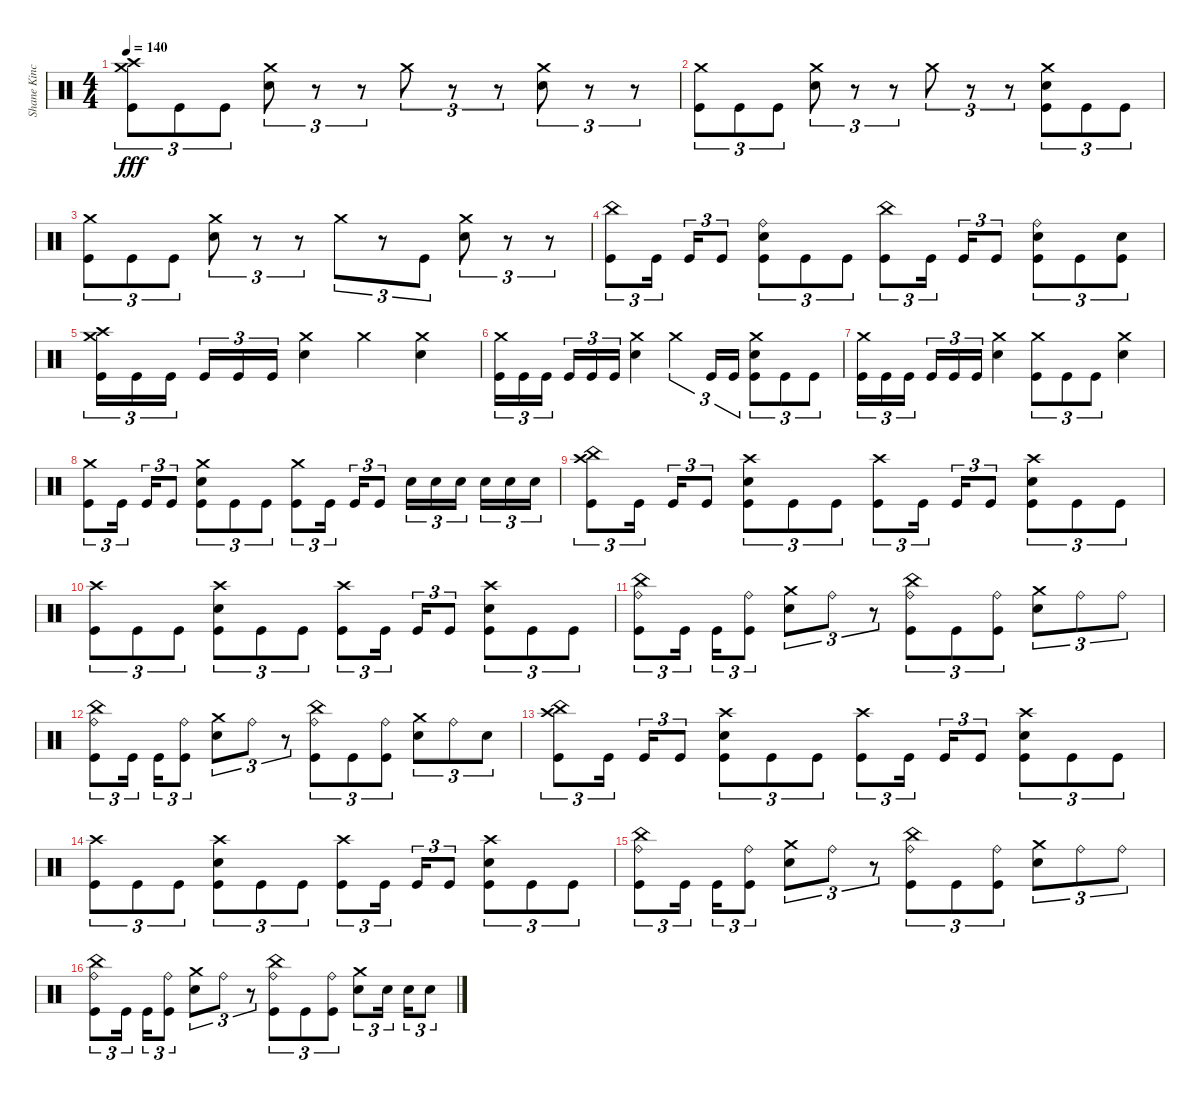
\track ("Shane Kincaid" "Shane Kinc") {instrument percussion}
\staff {score}
\articulation defaults
\ts (4 4)
\tempo 140
\clef neutral
\ks c
("Crash medium (hit)" "Crash high (hit)" "Kick (hit)").8{tu (3 2) dy fff} "Kick (hit)".8{tu (3 2)} "Kick (hit)".8{tu (3 2)} ("Crash medium (hit)" "Electric Snare (hit)").8{tu (3 2)} r.8{tu (3 2)} r.8{tu (3 2)} "Crash medium (hit)".8{tu (3 2)} r.8{tu (3 2)} r.8{tu (3 2)} ("Crash medium (hit)" "Electric Snare (hit)").8{tu (3 2)} r.8{tu (3 2)} r.8{tu (3 2)} |
("Crash medium (hit)" "Kick (hit)").8{tu (3 2)} "Kick (hit)".8{tu (3 2)} "Kick (hit)".8{tu (3 2)} ("Crash medium (hit)" "Electric Snare (hit)").8{tu (3 2)} r.8{tu (3 2)} r.8{tu (3 2)} "Crash medium (hit)".8{tu (3 2)} r.8{tu (3 2)} r.8{tu (3 2)} ("Crash medium (hit)" "Electric Snare (hit)" "Kick (hit)").8{tu (3 2)} "Kick (hit)".8{tu (3 2)} "Kick (hit)".8{tu (3 2)} |
("Crash medium (hit)" "Kick (hit)").8{tu (3 2)} "Kick (hit)".8{tu (3 2)} "Kick (hit)".8{tu (3 2)} ("Crash medium (hit)" "Electric Snare (hit)").8{tu (3 2)} r.8{tu (3 2)} r.8{tu (3 2)} "Crash medium (hit)".8{tu (3 2)} r.8{tu (3 2)} "Kick (hit)".8{tu (3 2)} ("Crash medium (hit)" "Electric Snare (hit)").8{tu (3 2)} r.8{tu (3 2)} r.8{tu (3 2)} |
("China (hit)" "Kick (hit)").8{tu (3 2)} "Kick (hit)".16{tu (3 2) beam splitsecondary} "Kick (hit)".16{tu (3 2)} "Kick (hit)".8{tu (3 2)} ("Ride (bell)" "Electric Snare (hit)" "Kick (hit)").8{tu (3 2)} "Kick (hit)".8{tu (3 2)} "Kick (hit)".8{tu (3 2)} ("China (hit)" "Kick (hit)").8{tu (3 2)} "Kick (hit)".16{tu (3 2) beam splitsecondary} "Kick (hit)".16{tu (3 2)} "Kick (hit)".8{tu (3 2)} ("Ride (bell)" "Electric Snare (hit)" "Kick (hit)").8{tu (3 2)} "Kick (hit)".8{tu (3 2)} ("Electric Snare (hit)" "Kick (hit)").8{tu (3 2)} |
("Crash medium (hit)" "Crash high (hit)" "Kick (hit)").16{tu (3 2)} "Kick (hit)".16{tu (3 2)} "Kick (hit)".16{tu (3 2) beam splitsecondary} "Kick (hit)".16{tu (3 2)} "Kick (hit)".16{tu (3 2)} "Kick (hit)".16{tu (3 2)} ("Crash medium (hit)" "Electric Snare (hit)").4 "Crash medium (hit)".4 ("Crash medium (hit)" "Electric Snare (hit)").4 |
("Crash medium (hit)" "Kick (hit)").16{tu (3 2)} "Kick (hit)".16{tu (3 2)} "Kick (hit)".16{tu (3 2) beam splitsecondary} "Kick (hit)".16{tu (3 2)} "Kick (hit)".16{tu (3 2)} "Kick (hit)".16{tu (3 2)} ("Crash medium (hit)" "Electric Snare (hit)").4 "Crash medium (hit)".4{tu (3 2)} "Kick (hit)".16{tu (3 2)} "Kick (hit)".16{tu (3 2)} ("Crash medium (hit)" "Electric Snare (hit)" "Kick (hit)").8{tu (3 2)} "Kick (hit)".8{tu (3 2)} "Kick (hit)".8{tu (3 2)} |
("Crash medium (hit)" "Kick (hit)").16{tu (3 2)} "Kick (hit)".16{tu (3 2)} "Kick (hit)".16{tu (3 2) beam splitsecondary} "Kick (hit)".16{tu (3 2)} "Kick (hit)".16{tu (3 2)} "Kick (hit)".16{tu (3 2)} ("Crash medium (hit)" "Electric Snare (hit)").4 ("Crash medium (hit)" "Kick (hit)").8{tu (3 2)} "Kick (hit)".8{tu (3 2)} "Kick (hit)".8{tu (3 2)} ("Crash medium (hit)" "Electric Snare (hit)").4 |
("Crash medium (hit)" "Kick (hit)").8{tu (3 2)} "Kick (hit)".16{tu (3 2) beam splitsecondary} "Kick (hit)".16{tu (3 2)} "Kick (hit)".8{tu (3 2)} ("Crash medium (hit)" "Electric Snare (hit)" "Kick (hit)").8{tu (3 2)} "Kick (hit)".8{tu (3 2)} "Kick (hit)".8{tu (3 2)} ("Crash medium (hit)" "Kick (hit)").8{tu (3 2)} "Kick (hit)".16{tu (3 2) beam splitsecondary} "Kick (hit)".16{tu (3 2)} "Kick (hit)".8{tu (3 2)} "Electric Snare (hit)".16{tu (3 2)} "Electric Snare (hit)".16{tu (3 2)} "Electric Snare (hit)".16{tu (3 2) beam splitsecondary} "Electric Snare (hit)".16{tu (3 2)} "Electric Snare (hit)".16{tu (3 2)} "Electric Snare (hit)".16{tu (3 2)} |
("Crash high (hit)" "China (hit)" "Kick (hit)").8{tu (3 2)} "Kick (hit)".16{tu (3 2) beam splitsecondary} "Kick (hit)".16{tu (3 2)} "Kick (hit)".8{tu (3 2)} ("Crash high (hit)" "Electric Snare (hit)" "Kick (hit)").8{tu (3 2)} "Kick (hit)".8{tu (3 2)} "Kick (hit)".8{tu (3 2)} ("Crash high (hit)" "Kick (hit)").8{tu (3 2)} "Kick (hit)".16{tu (3 2) beam splitsecondary} "Kick (hit)".16{tu (3 2)} "Kick (hit)".8{tu (3 2)} ("Crash high (hit)" "Electric Snare (hit)" "Kick (hit)").8{tu (3 2)} "Kick (hit)".8{tu (3 2)} "Kick (hit)".8{tu (3 2)} |
("Crash high (hit)" "Kick (hit)").8{tu (3 2)} "Kick (hit)".8{tu (3 2)} "Kick (hit)".8{tu (3 2)} ("Crash high (hit)" "Electric Snare (hit)" "Kick (hit)").8{tu (3 2)} "Kick (hit)".8{tu (3 2)} "Kick (hit)".8{tu (3 2)} ("Crash high (hit)" "Kick (hit)").8{tu (3 2)} "Kick (hit)".16{tu (3 2) beam splitsecondary} "Kick (hit)".16{tu (3 2)} "Kick (hit)".8{tu (3 2)} ("Crash high (hit)" "Electric Snare (hit)" "Kick (hit)").8{tu (3 2)} "Kick (hit)".8{tu (3 2)} "Kick (hit)".8{tu (3 2)} |
("China (hit)" "Ride (bell)" "Kick (hit)").8{tu (3 2)} "Kick (hit)".16{tu (3 2) beam splitsecondary} "Kick (hit)".16{tu (3 2)} ("Ride (bell)" "Kick (hit)").8{tu (3 2)} ("Crash medium (hit)" "Electric Snare (hit)").8{tu (3 2)} "Ride (bell)".8{tu (3 2)} r.8{tu (3 2)} ("Ride (bell)" "China (hit)" "Kick (hit)").8{tu (3 2)} "Kick (hit)".8{tu (3 2)} ("Ride (bell)" "Kick (hit)").8{tu (3 2)} ("Crash medium (hit)" "Electric Snare (hit)").8{tu (3 2)} "Ride (bell)".8{tu (3 2)} "Ride (bell)".8{tu (3 2)} |
("China (hit)" "Ride (bell)" "Kick (hit)").8{tu (3 2)} "Kick (hit)".16{tu (3 2) beam splitsecondary} "Kick (hit)".16{tu (3 2)} ("Ride (bell)" "Kick (hit)").8{tu (3 2)} ("Crash medium (hit)" "Electric Snare (hit)").8{tu (3 2)} "Ride (bell)".8{tu (3 2)} r.8{tu (3 2)} ("Ride (bell)" "China (hit)" "Kick (hit)").8{tu (3 2)} "Kick (hit)".8{tu (3 2)} ("Ride (bell)" "Kick (hit)").8{tu (3 2)} ("Crash medium (hit)" "Electric Snare (hit)").8{tu (3 2)} "Ride (bell)".8{tu (3 2)} "Snare (hit) 2".8{tu (3 2)} |
("Crash high (hit)" "China (hit)" "Kick (hit)").8{tu (3 2)} "Kick (hit)".16{tu (3 2) beam splitsecondary} "Kick (hit)".16{tu (3 2)} "Kick (hit)".8{tu (3 2)} ("Crash high (hit)" "Electric Snare (hit)" "Kick (hit)").8{tu (3 2)} "Kick (hit)".8{tu (3 2)} "Kick (hit)".8{tu (3 2)} ("Crash high (hit)" "Kick (hit)").8{tu (3 2)} "Kick (hit)".16{tu (3 2) beam splitsecondary} "Kick (hit)".16{tu (3 2)} "Kick (hit)".8{tu (3 2)} ("Crash high (hit)" "Electric Snare (hit)" "Kick (hit)").8{tu (3 2)} "Kick (hit)".8{tu (3 2)} "Kick (hit)".8{tu (3 2)} |
("Crash high (hit)" "Kick (hit)").8{tu (3 2)} "Kick (hit)".8{tu (3 2)} "Kick (hit)".8{tu (3 2)} ("Crash high (hit)" "Electric Snare (hit)" "Kick (hit)").8{tu (3 2)} "Kick (hit)".8{tu (3 2)} "Kick (hit)".8{tu (3 2)} ("Crash high (hit)" "Kick (hit)").8{tu (3 2)} "Kick (hit)".16{tu (3 2) beam splitsecondary} "Kick (hit)".16{tu (3 2)} "Kick (hit)".8{tu (3 2)} ("Crash high (hit)" "Electric Snare (hit)" "Kick (hit)").8{tu (3 2)} "Kick (hit)".8{tu (3 2)} "Kick (hit)".8{tu (3 2)} |
("China (hit)" "Ride (bell)" "Kick (hit)").8{tu (3 2)} "Kick (hit)".16{tu (3 2) beam splitsecondary} "Kick (hit)".16{tu (3 2)} ("Ride (bell)" "Kick (hit)").8{tu (3 2)} ("Crash medium (hit)" "Electric Snare (hit)").8{tu (3 2)} "Ride (bell)".8{tu (3 2)} r.8{tu (3 2)} ("Ride (bell)" "China (hit)" "Kick (hit)").8{tu (3 2)} "Kick (hit)".8{tu (3 2)} ("Ride (bell)" "Kick (hit)").8{tu (3 2)} ("Crash medium (hit)" "Electric Snare (hit)").8{tu (3 2)} "Ride (bell)".8{tu (3 2)} "Ride (bell)".8{tu (3 2)} |
("China (hit)" "Ride (bell)" "Kick (hit)").8{tu (3 2)} "Kick (hit)".16{tu (3 2) beam splitsecondary} "Kick (hit)".16{tu (3 2)} ("Ride (bell)" "Kick (hit)").8{tu (3 2)} ("Crash medium (hit)" "Electric Snare (hit)").8{tu (3 2)} "Ride (bell)".8{tu (3 2)} r.8{tu (3 2)} ("Ride (bell)" "China (hit)" "Kick (hit)").8{tu (3 2)} "Kick (hit)".8{tu (3 2)} ("Ride (bell)" "Kick (hit)").8{tu (3 2)} ("Crash medium (hit)" "Electric Snare (hit)").8{tu (3 2)} "Electric Snare (hit)".16{tu (3 2) beam splitsecondary} "Electric Snare (hit)".16{tu (3 2)} "Electric Snare (hit)".8{tu (3 2)}
